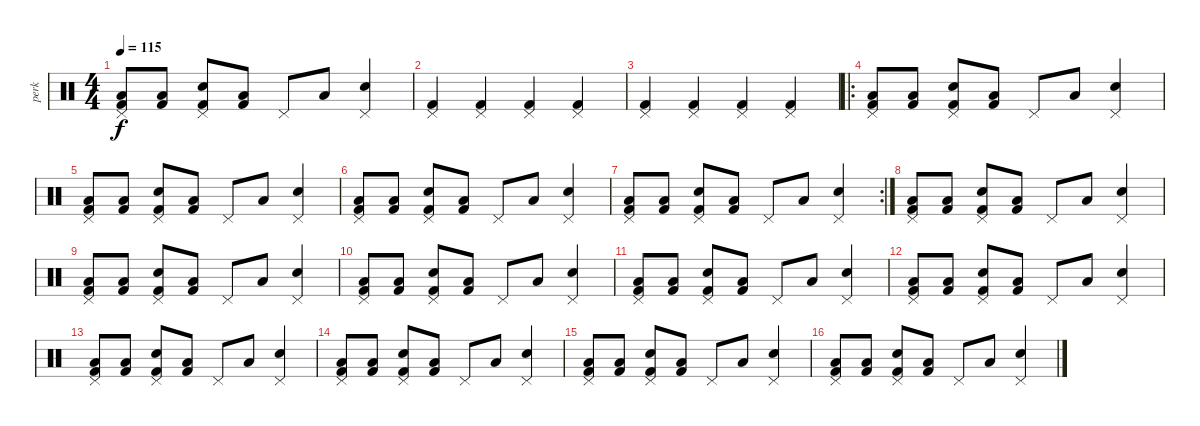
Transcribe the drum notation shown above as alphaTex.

\track ("perk" "perk") {instrument percussion}
\staff {score}
\articulation defaults
\ts (4 4)
\tempo 115
\clef neutral
\ks c
("Pedal Hi-Hat (hit)" "Low Floor Tom (hit)" "Kick (hit) 2").8{dy f} ("Low Floor Tom (hit)" "Kick (hit) 2").8 ("Pedal Hi-Hat (hit)" "Snare (hit) 2" "Kick (hit) 2").8 ("Low Floor Tom (hit)" "Kick (hit) 2").8 "Pedal Hi-Hat (hit)".8 "Low Floor Tom (hit)".8 ("Pedal Hi-Hat (hit)" "Snare (hit) 2").4 |
("Pedal Hi-Hat (hit)" "Kick (hit) 2").4 ("Pedal Hi-Hat (hit)" "Kick (hit) 2").4 ("Pedal Hi-Hat (hit)" "Kick (hit) 2").4 ("Pedal Hi-Hat (hit)" "Kick (hit) 2").4 |
("Pedal Hi-Hat (hit)" "Kick (hit) 2").4 ("Pedal Hi-Hat (hit)" "Kick (hit) 2").4 ("Pedal Hi-Hat (hit)" "Kick (hit) 2").4 ("Pedal Hi-Hat (hit)" "Kick (hit) 2").4 |
\ro
("Pedal Hi-Hat (hit)" "Low Floor Tom (hit)" "Kick (hit) 2").8 ("Low Floor Tom (hit)" "Kick (hit) 2").8 ("Pedal Hi-Hat (hit)" "Snare (hit) 2" "Kick (hit) 2").8 ("Low Floor Tom (hit)" "Kick (hit) 2").8 "Pedal Hi-Hat (hit)".8 "Low Floor Tom (hit)".8 ("Pedal Hi-Hat (hit)" "Snare (hit) 2").4 |
("Pedal Hi-Hat (hit)" "Low Floor Tom (hit)" "Kick (hit) 2").8 ("Low Floor Tom (hit)" "Kick (hit) 2").8 ("Pedal Hi-Hat (hit)" "Snare (hit) 2" "Kick (hit) 2").8 ("Low Floor Tom (hit)" "Kick (hit) 2").8 "Pedal Hi-Hat (hit)".8 "Low Floor Tom (hit)".8 ("Pedal Hi-Hat (hit)" "Snare (hit) 2").4 |
("Pedal Hi-Hat (hit)" "Low Floor Tom (hit)" "Kick (hit) 2").8 ("Low Floor Tom (hit)" "Kick (hit) 2").8 ("Pedal Hi-Hat (hit)" "Snare (hit) 2" "Kick (hit) 2").8 ("Low Floor Tom (hit)" "Kick (hit) 2").8 "Pedal Hi-Hat (hit)".8 "Low Floor Tom (hit)".8 ("Pedal Hi-Hat (hit)" "Snare (hit) 2").4 |
\rc 2
("Pedal Hi-Hat (hit)" "Low Floor Tom (hit)" "Kick (hit) 2").8 ("Low Floor Tom (hit)" "Kick (hit) 2").8 ("Pedal Hi-Hat (hit)" "Snare (hit) 2" "Kick (hit) 2").8 ("Low Floor Tom (hit)" "Kick (hit) 2").8 "Pedal Hi-Hat (hit)".8 "Low Floor Tom (hit)".8 ("Pedal Hi-Hat (hit)" "Snare (hit) 2").4 |
("Pedal Hi-Hat (hit)" "Low Floor Tom (hit)" "Kick (hit) 2").8 ("Low Floor Tom (hit)" "Kick (hit) 2").8 ("Pedal Hi-Hat (hit)" "Snare (hit) 2" "Kick (hit) 2").8 ("Low Floor Tom (hit)" "Kick (hit) 2").8 "Pedal Hi-Hat (hit)".8 "Low Floor Tom (hit)".8 ("Pedal Hi-Hat (hit)" "Snare (hit) 2").4 |
("Pedal Hi-Hat (hit)" "Low Floor Tom (hit)" "Kick (hit) 2").8 ("Low Floor Tom (hit)" "Kick (hit) 2").8 ("Pedal Hi-Hat (hit)" "Snare (hit) 2" "Kick (hit) 2").8 ("Low Floor Tom (hit)" "Kick (hit) 2").8 "Pedal Hi-Hat (hit)".8 "Low Floor Tom (hit)".8 ("Pedal Hi-Hat (hit)" "Snare (hit) 2").4 |
("Pedal Hi-Hat (hit)" "Low Floor Tom (hit)" "Kick (hit) 2").8 ("Low Floor Tom (hit)" "Kick (hit) 2").8 ("Pedal Hi-Hat (hit)" "Snare (hit) 2" "Kick (hit) 2").8 ("Low Floor Tom (hit)" "Kick (hit) 2").8 "Pedal Hi-Hat (hit)".8 "Low Floor Tom (hit)".8 ("Pedal Hi-Hat (hit)" "Snare (hit) 2").4 |
("Pedal Hi-Hat (hit)" "Low Floor Tom (hit)" "Kick (hit) 2").8 ("Low Floor Tom (hit)" "Kick (hit) 2").8 ("Pedal Hi-Hat (hit)" "Snare (hit) 2" "Kick (hit) 2").8 ("Low Floor Tom (hit)" "Kick (hit) 2").8 "Pedal Hi-Hat (hit)".8 "Low Floor Tom (hit)".8 ("Pedal Hi-Hat (hit)" "Snare (hit) 2").4 |
("Pedal Hi-Hat (hit)" "Low Floor Tom (hit)" "Kick (hit) 2").8 ("Low Floor Tom (hit)" "Kick (hit) 2").8 ("Pedal Hi-Hat (hit)" "Snare (hit) 2" "Kick (hit) 2").8 ("Low Floor Tom (hit)" "Kick (hit) 2").8 "Pedal Hi-Hat (hit)".8 "Low Floor Tom (hit)".8 ("Pedal Hi-Hat (hit)" "Snare (hit) 2").4 |
("Pedal Hi-Hat (hit)" "Low Floor Tom (hit)" "Kick (hit) 2").8 ("Low Floor Tom (hit)" "Kick (hit) 2").8 ("Pedal Hi-Hat (hit)" "Snare (hit) 2" "Kick (hit) 2").8 ("Low Floor Tom (hit)" "Kick (hit) 2").8 "Pedal Hi-Hat (hit)".8 "Low Floor Tom (hit)".8 ("Pedal Hi-Hat (hit)" "Snare (hit) 2").4 |
("Pedal Hi-Hat (hit)" "Low Floor Tom (hit)" "Kick (hit) 2").8 ("Low Floor Tom (hit)" "Kick (hit) 2").8 ("Pedal Hi-Hat (hit)" "Snare (hit) 2" "Kick (hit) 2").8 ("Low Floor Tom (hit)" "Kick (hit) 2").8 "Pedal Hi-Hat (hit)".8 "Low Floor Tom (hit)".8 ("Pedal Hi-Hat (hit)" "Snare (hit) 2").4 |
("Pedal Hi-Hat (hit)" "Low Floor Tom (hit)" "Kick (hit) 2").8 ("Low Floor Tom (hit)" "Kick (hit) 2").8 ("Pedal Hi-Hat (hit)" "Snare (hit) 2" "Kick (hit) 2").8 ("Low Floor Tom (hit)" "Kick (hit) 2").8 "Pedal Hi-Hat (hit)".8 "Low Floor Tom (hit)".8 ("Pedal Hi-Hat (hit)" "Snare (hit) 2").4 |
("Pedal Hi-Hat (hit)" "Low Floor Tom (hit)" "Kick (hit) 2").8 ("Low Floor Tom (hit)" "Kick (hit) 2").8 ("Pedal Hi-Hat (hit)" "Snare (hit) 2" "Kick (hit) 2").8 ("Low Floor Tom (hit)" "Kick (hit) 2").8 "Pedal Hi-Hat (hit)".8 "Low Floor Tom (hit)".8 ("Pedal Hi-Hat (hit)" "Snare (hit) 2").4
